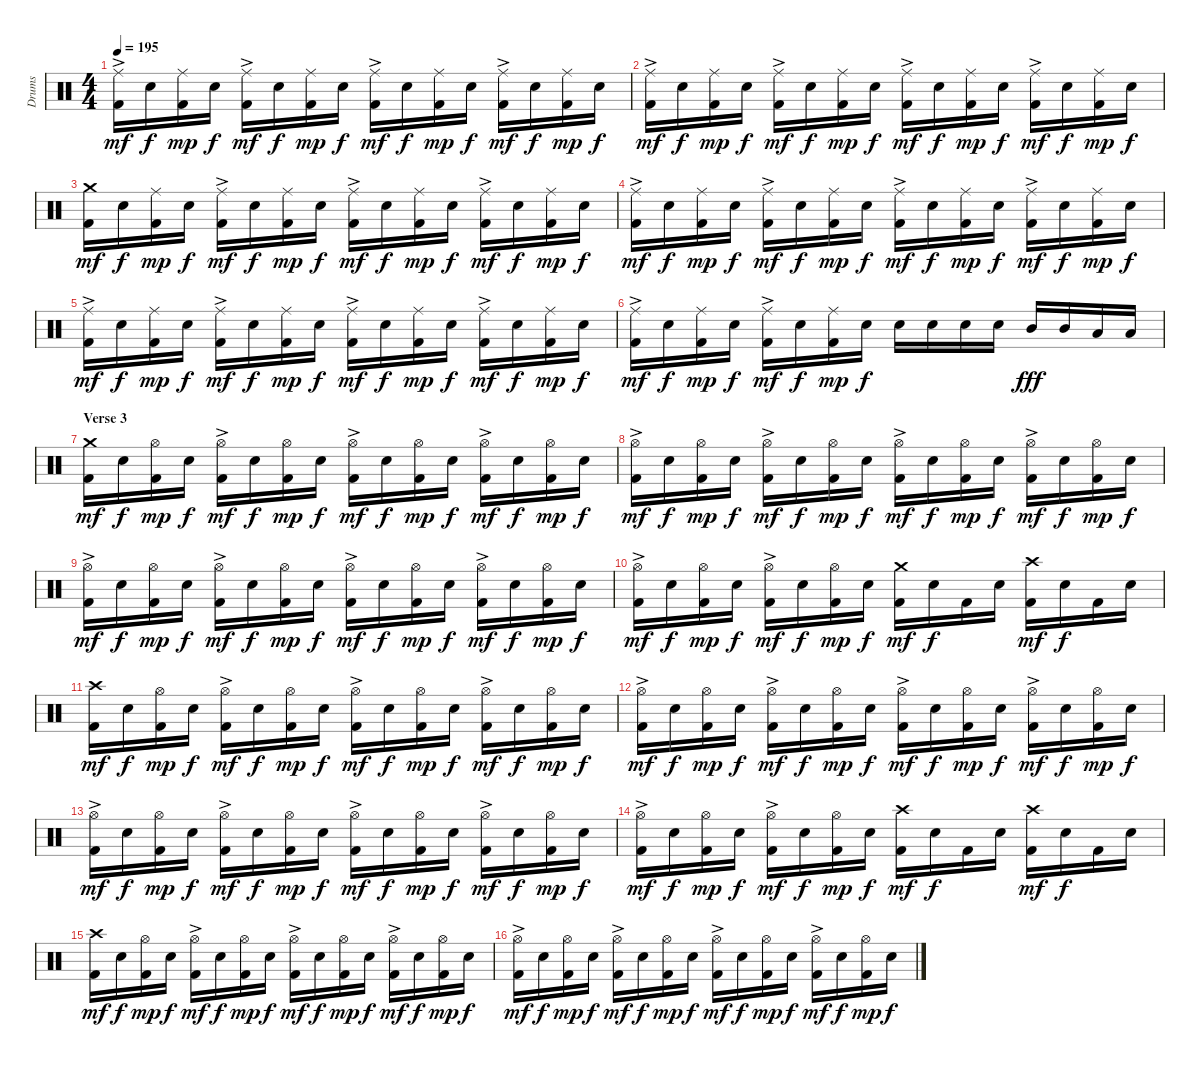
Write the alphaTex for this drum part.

\track ("Drums" "Drums") {instrument percussion}
\staff {score}
\articulation defaults
\ts (4 4)
\tempo 195
\clef neutral
\ks c
("Ride (middle)"{ac} "Kick (hit) 2").16{dy mf} "Electric Snare (hit)".16{dy f} ("Ride (middle)" "Kick (hit) 2").16{dy mp} "Electric Snare (hit)".16{dy f} ("Ride (middle)"{ac} "Kick (hit) 2").16{dy mf} "Electric Snare (hit)".16{dy f} ("Ride (middle)" "Kick (hit) 2").16{dy mp} "Electric Snare (hit)".16{dy f} ("Ride (middle)"{ac} "Kick (hit) 2").16{dy mf} "Electric Snare (hit)".16{dy f} ("Ride (middle)" "Kick (hit) 2").16{dy mp} "Electric Snare (hit)".16{dy f} ("Ride (middle)"{ac} "Kick (hit) 2").16{dy mf} "Electric Snare (hit)".16{dy f} ("Ride (middle)" "Kick (hit) 2").16{dy mp} "Electric Snare (hit)".16{dy f} |
("Ride (middle)"{ac} "Kick (hit) 2").16{dy mf} "Electric Snare (hit)".16{dy f} ("Ride (middle)" "Kick (hit) 2").16{dy mp} "Electric Snare (hit)".16{dy f} ("Ride (middle)"{ac} "Kick (hit) 2").16{dy mf} "Electric Snare (hit)".16{dy f} ("Ride (middle)" "Kick (hit) 2").16{dy mp} "Electric Snare (hit)".16{dy f} ("Ride (middle)"{ac} "Kick (hit) 2").16{dy mf} "Electric Snare (hit)".16{dy f} ("Ride (middle)" "Kick (hit) 2").16{dy mp} "Electric Snare (hit)".16{dy f} ("Ride (middle)"{ac} "Kick (hit) 2").16{dy mf} "Electric Snare (hit)".16{dy f} ("Ride (middle)" "Kick (hit) 2").16{dy mp} "Electric Snare (hit)".16{dy f} |
("Crash medium (hit)" "Kick (hit) 2").16{dy mf} "Electric Snare (hit)".16{dy f} ("Ride (middle)" "Kick (hit) 2").16{dy mp} "Electric Snare (hit)".16{dy f} ("Ride (middle)"{ac} "Kick (hit) 2").16{dy mf} "Electric Snare (hit)".16{dy f} ("Ride (middle)" "Kick (hit) 2").16{dy mp} "Electric Snare (hit)".16{dy f} ("Ride (middle)"{ac} "Kick (hit) 2").16{dy mf} "Electric Snare (hit)".16{dy f} ("Ride (middle)" "Kick (hit) 2").16{dy mp} "Electric Snare (hit)".16{dy f} ("Ride (middle)"{ac} "Kick (hit) 2").16{dy mf} "Electric Snare (hit)".16{dy f} ("Ride (middle)" "Kick (hit) 2").16{dy mp} "Electric Snare (hit)".16{dy f} |
("Ride (middle)"{ac} "Kick (hit) 2").16{dy mf} "Electric Snare (hit)".16{dy f} ("Ride (middle)" "Kick (hit) 2").16{dy mp} "Electric Snare (hit)".16{dy f} ("Ride (middle)"{ac} "Kick (hit) 2").16{dy mf} "Electric Snare (hit)".16{dy f} ("Ride (middle)" "Kick (hit) 2").16{dy mp} "Electric Snare (hit)".16{dy f} ("Ride (middle)"{ac} "Kick (hit) 2").16{dy mf} "Electric Snare (hit)".16{dy f} ("Ride (middle)" "Kick (hit) 2").16{dy mp} "Electric Snare (hit)".16{dy f} ("Ride (middle)"{ac} "Kick (hit) 2").16{dy mf} "Electric Snare (hit)".16{dy f} ("Ride (middle)" "Kick (hit) 2").16{dy mp} "Electric Snare (hit)".16{dy f} |
("Ride (middle)"{ac} "Kick (hit) 2").16{dy mf} "Electric Snare (hit)".16{dy f} ("Ride (middle)" "Kick (hit) 2").16{dy mp} "Electric Snare (hit)".16{dy f} ("Ride (middle)"{ac} "Kick (hit) 2").16{dy mf} "Electric Snare (hit)".16{dy f} ("Ride (middle)" "Kick (hit) 2").16{dy mp} "Electric Snare (hit)".16{dy f} ("Ride (middle)"{ac} "Kick (hit) 2").16{dy mf} "Electric Snare (hit)".16{dy f} ("Ride (middle)" "Kick (hit) 2").16{dy mp} "Electric Snare (hit)".16{dy f} ("Ride (middle)"{ac} "Kick (hit) 2").16{dy mf} "Electric Snare (hit)".16{dy f} ("Ride (middle)" "Kick (hit) 2").16{dy mp} "Electric Snare (hit)".16{dy f} |
("Ride (middle)"{ac} "Kick (hit) 2").16{dy mf} "Electric Snare (hit)".16{dy f} ("Ride (middle)" "Kick (hit) 2").16{dy mp} "Electric Snare (hit)".16{dy f} ("Ride (middle)"{ac} "Kick (hit) 2").16{dy mf} "Electric Snare (hit)".16{dy f} ("Ride (middle)" "Kick (hit) 2").16{dy mp} "Electric Snare (hit)".16{dy f} "Electric Snare (hit)".16 "Electric Snare (hit)".16 "Electric Snare (hit)".16 "Electric Snare (hit)".16 "Mid Tom (hit)".16{dy fff} "Mid Tom (hit)".16 "Low Tom (hit)".16 "Low Tom (hit)".16 |
\section ("" "Verse 3")
("Crash medium (hit)" "Kick (hit) 2").16{dy mf} "Electric Snare (hit)".16{dy f} ("Hi-Hat (open)" "Kick (hit) 2").16{dy mp} "Electric Snare (hit)".16{dy f} ("Hi-Hat (open)"{ac} "Kick (hit) 2").16{dy mf} "Electric Snare (hit)".16{dy f} ("Hi-Hat (open)" "Kick (hit) 2").16{dy mp} "Electric Snare (hit)".16{dy f} ("Hi-Hat (open)"{ac} "Kick (hit) 2").16{dy mf} "Electric Snare (hit)".16{dy f} ("Hi-Hat (open)" "Kick (hit) 2").16{dy mp} "Electric Snare (hit)".16{dy f} ("Hi-Hat (open)"{ac} "Kick (hit) 2").16{dy mf} "Electric Snare (hit)".16{dy f} ("Hi-Hat (open)" "Kick (hit) 2").16{dy mp} "Electric Snare (hit)".16{dy f} |
("Hi-Hat (open)"{ac} "Kick (hit) 2").16{dy mf} "Electric Snare (hit)".16{dy f} ("Hi-Hat (open)" "Kick (hit) 2").16{dy mp} "Electric Snare (hit)".16{dy f} ("Hi-Hat (open)"{ac} "Kick (hit) 2").16{dy mf} "Electric Snare (hit)".16{dy f} ("Hi-Hat (open)" "Kick (hit) 2").16{dy mp} "Electric Snare (hit)".16{dy f} ("Hi-Hat (open)"{ac} "Kick (hit) 2").16{dy mf} "Electric Snare (hit)".16{dy f} ("Hi-Hat (open)" "Kick (hit) 2").16{dy mp} "Electric Snare (hit)".16{dy f} ("Hi-Hat (open)"{ac} "Kick (hit) 2").16{dy mf} "Electric Snare (hit)".16{dy f} ("Hi-Hat (open)" "Kick (hit) 2").16{dy mp} "Electric Snare (hit)".16{dy f} |
("Hi-Hat (open)"{ac} "Kick (hit) 2").16{dy mf} "Electric Snare (hit)".16{dy f} ("Hi-Hat (open)" "Kick (hit) 2").16{dy mp} "Electric Snare (hit)".16{dy f} ("Hi-Hat (open)"{ac} "Kick (hit) 2").16{dy mf} "Electric Snare (hit)".16{dy f} ("Hi-Hat (open)" "Kick (hit) 2").16{dy mp} "Electric Snare (hit)".16{dy f} ("Hi-Hat (open)"{ac} "Kick (hit) 2").16{dy mf} "Electric Snare (hit)".16{dy f} ("Hi-Hat (open)" "Kick (hit) 2").16{dy mp} "Electric Snare (hit)".16{dy f} ("Hi-Hat (open)"{ac} "Kick (hit) 2").16{dy mf} "Electric Snare (hit)".16{dy f} ("Hi-Hat (open)" "Kick (hit) 2").16{dy mp} "Electric Snare (hit)".16{dy f} |
("Hi-Hat (open)"{ac} "Kick (hit) 2").16{dy mf} "Electric Snare (hit)".16{dy f} ("Hi-Hat (open)" "Kick (hit) 2").16{dy mp} "Electric Snare (hit)".16{dy f} ("Hi-Hat (open)"{ac} "Kick (hit) 2").16{dy mf} "Electric Snare (hit)".16{dy f} ("Hi-Hat (open)" "Kick (hit) 2").16{dy mp} "Electric Snare (hit)".16{dy f} ("Crash medium (hit)" "Kick (hit) 2").16{dy mf} "Electric Snare (hit)".16{dy f} "Kick (hit) 2".16 "Electric Snare (hit)".16 ("Crash high (hit)" "Kick (hit) 2").16{dy mf} "Electric Snare (hit)".16{dy f} "Kick (hit) 2".16 "Electric Snare (hit)".16 |
("Crash high (hit)" "Kick (hit) 2").16{dy mf} "Electric Snare (hit)".16{dy f} ("Hi-Hat (open)" "Kick (hit) 2").16{dy mp} "Electric Snare (hit)".16{dy f} ("Hi-Hat (open)"{ac} "Kick (hit) 2").16{dy mf} "Electric Snare (hit)".16{dy f} ("Hi-Hat (open)" "Kick (hit) 2").16{dy mp} "Electric Snare (hit)".16{dy f} ("Hi-Hat (open)"{ac} "Kick (hit) 2").16{dy mf} "Electric Snare (hit)".16{dy f} ("Hi-Hat (open)" "Kick (hit) 2").16{dy mp} "Electric Snare (hit)".16{dy f} ("Hi-Hat (open)"{ac} "Kick (hit) 2").16{dy mf} "Electric Snare (hit)".16{dy f} ("Hi-Hat (open)" "Kick (hit) 2").16{dy mp} "Electric Snare (hit)".16{dy f} |
("Hi-Hat (open)"{ac} "Kick (hit) 2").16{dy mf} "Electric Snare (hit)".16{dy f} ("Hi-Hat (open)" "Kick (hit) 2").16{dy mp} "Electric Snare (hit)".16{dy f} ("Hi-Hat (open)"{ac} "Kick (hit) 2").16{dy mf} "Electric Snare (hit)".16{dy f} ("Hi-Hat (open)" "Kick (hit) 2").16{dy mp} "Electric Snare (hit)".16{dy f} ("Hi-Hat (open)"{ac} "Kick (hit) 2").16{dy mf} "Electric Snare (hit)".16{dy f} ("Hi-Hat (open)" "Kick (hit) 2").16{dy mp} "Electric Snare (hit)".16{dy f} ("Hi-Hat (open)"{ac} "Kick (hit) 2").16{dy mf} "Electric Snare (hit)".16{dy f} ("Hi-Hat (open)" "Kick (hit) 2").16{dy mp} "Electric Snare (hit)".16{dy f} |
("Hi-Hat (open)"{ac} "Kick (hit) 2").16{dy mf} "Electric Snare (hit)".16{dy f} ("Hi-Hat (open)" "Kick (hit) 2").16{dy mp} "Electric Snare (hit)".16{dy f} ("Hi-Hat (open)"{ac} "Kick (hit) 2").16{dy mf} "Electric Snare (hit)".16{dy f} ("Hi-Hat (open)" "Kick (hit) 2").16{dy mp} "Electric Snare (hit)".16{dy f} ("Hi-Hat (open)"{ac} "Kick (hit) 2").16{dy mf} "Electric Snare (hit)".16{dy f} ("Hi-Hat (open)" "Kick (hit) 2").16{dy mp} "Electric Snare (hit)".16{dy f} ("Hi-Hat (open)"{ac} "Kick (hit) 2").16{dy mf} "Electric Snare (hit)".16{dy f} ("Hi-Hat (open)" "Kick (hit) 2").16{dy mp} "Electric Snare (hit)".16{dy f} |
("Hi-Hat (open)"{ac} "Kick (hit) 2").16{dy mf} "Electric Snare (hit)".16{dy f} ("Hi-Hat (open)" "Kick (hit) 2").16{dy mp} "Electric Snare (hit)".16{dy f} ("Hi-Hat (open)"{ac} "Kick (hit) 2").16{dy mf} "Electric Snare (hit)".16{dy f} ("Hi-Hat (open)" "Kick (hit) 2").16{dy mp} "Electric Snare (hit)".16{dy f} ("Crash high (hit)" "Kick (hit) 2").16{dy mf} "Electric Snare (hit)".16{dy f} "Kick (hit) 2".16 "Electric Snare (hit)".16 ("Crash high (hit)" "Kick (hit) 2").16{dy mf} "Electric Snare (hit)".16{dy f} "Kick (hit) 2".16 "Electric Snare (hit)".16 |
("Crash high (hit)" "Kick (hit) 2").16{dy mf} "Electric Snare (hit)".16{dy f} ("Hi-Hat (open)" "Kick (hit) 2").16{dy mp} "Electric Snare (hit)".16{dy f} ("Hi-Hat (open)"{ac} "Kick (hit) 2").16{dy mf} "Electric Snare (hit)".16{dy f} ("Hi-Hat (open)" "Kick (hit) 2").16{dy mp} "Electric Snare (hit)".16{dy f} ("Hi-Hat (open)"{ac} "Kick (hit) 2").16{dy mf} "Electric Snare (hit)".16{dy f} ("Hi-Hat (open)" "Kick (hit) 2").16{dy mp} "Electric Snare (hit)".16{dy f} ("Hi-Hat (open)"{ac} "Kick (hit) 2").16{dy mf} "Electric Snare (hit)".16{dy f} ("Hi-Hat (open)" "Kick (hit) 2").16{dy mp} "Electric Snare (hit)".16{dy f} |
("Hi-Hat (open)"{ac} "Kick (hit) 2").16{dy mf} "Electric Snare (hit)".16{dy f} ("Hi-Hat (open)" "Kick (hit) 2").16{dy mp} "Electric Snare (hit)".16{dy f} ("Hi-Hat (open)"{ac} "Kick (hit) 2").16{dy mf} "Electric Snare (hit)".16{dy f} ("Hi-Hat (open)" "Kick (hit) 2").16{dy mp} "Electric Snare (hit)".16{dy f} ("Hi-Hat (open)"{ac} "Kick (hit) 2").16{dy mf} "Electric Snare (hit)".16{dy f} ("Hi-Hat (open)" "Kick (hit) 2").16{dy mp} "Electric Snare (hit)".16{dy f} ("Hi-Hat (open)"{ac} "Kick (hit) 2").16{dy mf} "Electric Snare (hit)".16{dy f} ("Hi-Hat (open)" "Kick (hit) 2").16{dy mp} "Electric Snare (hit)".16{dy f}
